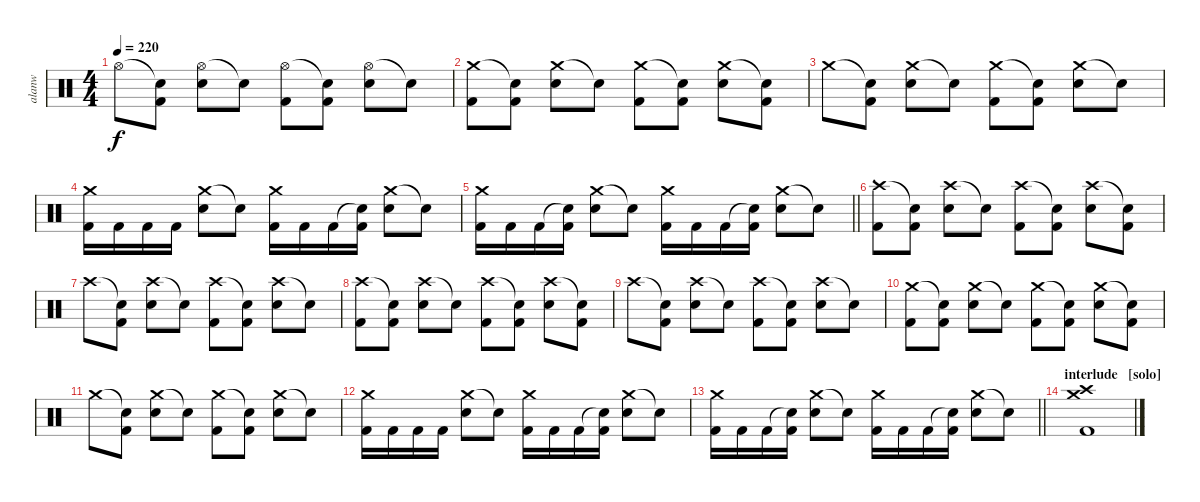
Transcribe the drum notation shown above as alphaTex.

\track ("alanw" "alanw") {instrument percussion}
\staff {score}
\articulation defaults
\ts (4 4)
\tempo 220
\clef neutral
\ks c "Hi-Hat (open)".8{dy f}
("Snare (hit)"{t} "Kick (hit) 2").8 ("Hi-Hat (open)" "Electric Snare (hit)").8 "Snare (hit)"{t}.8 ("Hi-Hat (open)" "Kick (hit) 2").8 ("Snare (hit)"{t} "Kick (hit) 2").8 ("Hi-Hat (open)" "Electric Snare (hit)").8 "Snare (hit)"{t}.8 |
("Crash medium (hit)" "Kick (hit) 2").8 ("Snare (hit)"{t} "Kick (hit) 2").8 ("Crash medium (hit)" "Electric Snare (hit)").8 "Snare (hit)"{t}.8 ("Crash medium (hit)" "Kick (hit) 2").8 ("Snare (hit)"{t} "Kick (hit) 2").8 ("Crash medium (hit)" "Electric Snare (hit)").8 ("Snare (hit)"{t} "Kick (hit) 2").8 |
"Crash medium (hit)".8 ("Snare (hit)"{t} "Kick (hit) 2").8 ("Crash medium (hit)" "Electric Snare (hit)").8 "Snare (hit)"{t}.8 ("Crash medium (hit)" "Kick (hit) 2").8 ("Snare (hit)"{t} "Kick (hit) 2").8 ("Crash medium (hit)" "Electric Snare (hit)").8 "Snare (hit)"{t}.8 |
("Crash medium (hit)" "Kick (hit) 2").16 "Kick (hit) 2".16 "Kick (hit) 2".16 "Kick (hit) 2".16 ("Crash medium (hit)" "Electric Snare (hit)").8 "Snare (hit)"{t}.8 ("Crash medium (hit)" "Kick (hit) 2").16 "Kick (hit) 2".16 "Kick (hit) 2".16 ("Snare (hit)"{t} "Kick (hit) 2").16 ("Crash medium (hit)" "Electric Snare (hit)").8 "Snare (hit)"{t}.8 |
\barLineRight lightlight
("Crash medium (hit)" "Kick (hit) 2").16 "Kick (hit) 2".16 "Kick (hit) 2".16 ("Snare (hit)"{t} "Kick (hit) 2").16 ("Crash medium (hit)" "Electric Snare (hit)").8 "Snare (hit)"{t}.8 ("Crash medium (hit)" "Kick (hit) 2").16 "Kick (hit) 2".16 "Kick (hit) 2".16 ("Snare (hit)"{t} "Kick (hit) 2").16 ("Crash medium (hit)" "Electric Snare (hit)").8 "Snare (hit)"{t}.8 |
\section ("" ".")
("Crash high (hit)" "Kick (hit) 2").8 ("Snare (hit)"{t} "Kick (hit) 2").8 ("Crash high (hit)" "Electric Snare (hit)").8 "Snare (hit)"{t}.8 ("Crash high (hit)" "Kick (hit) 2").8 ("Snare (hit)"{t} "Kick (hit) 2").8 ("Crash high (hit)" "Electric Snare (hit)").8 ("Snare (hit)"{t} "Kick (hit) 2").8 |
"Crash high (hit)".8 ("Snare (hit)"{t} "Kick (hit) 2").8 ("Crash high (hit)" "Electric Snare (hit)").8 "Snare (hit)"{t}.8 ("Crash high (hit)" "Kick (hit) 2").8 ("Snare (hit)"{t} "Kick (hit) 2").8 ("Crash high (hit)" "Electric Snare (hit)").8 "Snare (hit)"{t}.8 |
("Crash high (hit)" "Kick (hit) 2").8 ("Snare (hit)"{t} "Kick (hit) 2").8 ("Crash high (hit)" "Electric Snare (hit)").8 "Snare (hit)"{t}.8 ("Crash high (hit)" "Kick (hit) 2").8 ("Snare (hit)"{t} "Kick (hit) 2").8 ("Crash high (hit)" "Electric Snare (hit)").8 ("Snare (hit)"{t} "Kick (hit) 2").8 |
"Crash high (hit)".8 ("Snare (hit)"{t} "Kick (hit) 2").8 ("Crash high (hit)" "Electric Snare (hit)").8 "Snare (hit)"{t}.8 ("Crash high (hit)" "Kick (hit) 2").8 ("Snare (hit)"{t} "Kick (hit) 2").8 ("Crash high (hit)" "Electric Snare (hit)").8 "Snare (hit)"{t}.8 |
("Crash medium (hit)" "Kick (hit) 2").8 ("Snare (hit)"{t} "Kick (hit) 2").8 ("Crash medium (hit)" "Electric Snare (hit)").8 "Snare (hit)"{t}.8 ("Crash medium (hit)" "Kick (hit) 2").8 ("Snare (hit)"{t} "Kick (hit) 2").8 ("Crash medium (hit)" "Electric Snare (hit)").8 ("Snare (hit)"{t} "Kick (hit) 2").8 |
"Crash medium (hit)".8 ("Snare (hit)"{t} "Kick (hit) 2").8 ("Crash medium (hit)" "Electric Snare (hit)").8 "Snare (hit)"{t}.8 ("Crash medium (hit)" "Kick (hit) 2").8 ("Snare (hit)"{t} "Kick (hit) 2").8 ("Crash medium (hit)" "Electric Snare (hit)").8 "Snare (hit)"{t}.8 |
("Crash medium (hit)" "Kick (hit) 2").16 "Kick (hit) 2".16 "Kick (hit) 2".16 "Kick (hit) 2".16 ("Crash medium (hit)" "Electric Snare (hit)").8 "Snare (hit)"{t}.8 ("Crash medium (hit)" "Kick (hit) 2").16 "Kick (hit) 2".16 "Kick (hit) 2".16 ("Snare (hit)"{t} "Kick (hit) 2").16 ("Crash medium (hit)" "Electric Snare (hit)").8 "Snare (hit)"{t}.8 |
\barLineRight lightlight
("Crash medium (hit)" "Kick (hit) 2").16 "Kick (hit) 2".16 "Kick (hit) 2".16 ("Snare (hit)"{t} "Kick (hit) 2").16 ("Crash medium (hit)" "Electric Snare (hit)").8 "Snare (hit)"{t}.8 ("Crash medium (hit)" "Kick (hit) 2").16 "Kick (hit) 2".16 "Kick (hit) 2".16 ("Snare (hit)"{t} "Kick (hit) 2").16 ("Crash medium (hit)" "Electric Snare (hit)").8 "Snare (hit)"{t}.8 |
\section ("" "interlude   [solo]")
("Crash high (hit)" "Crash medium (hit)" "Kick (hit) 2").1
